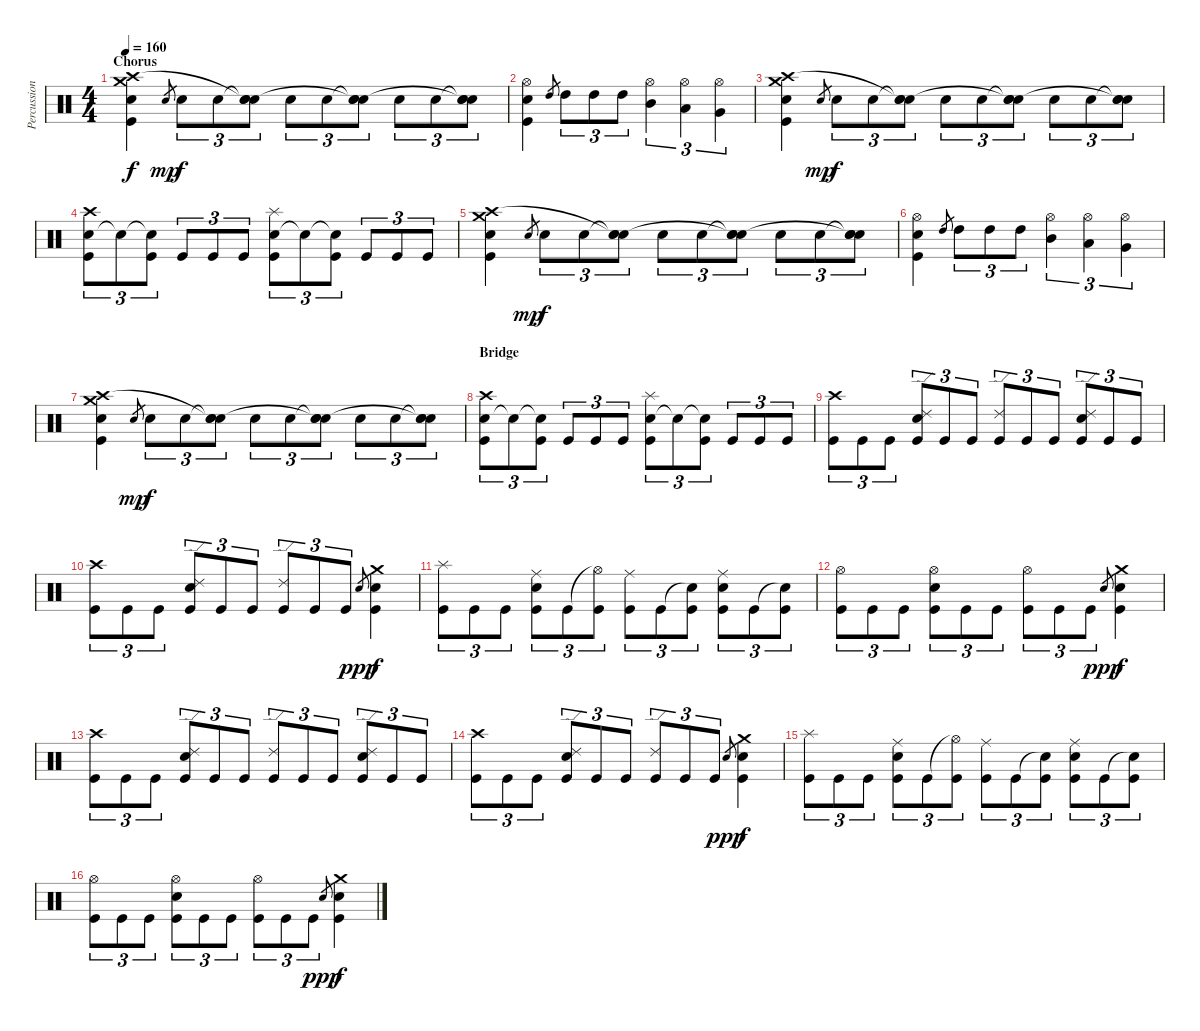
\track ("Percussion" "Percussion") {instrument percussion}
\staff {score}
\articulation defaults
\ts (4 4)
\section ("" "Chorus")
\tempo 160
\clef neutral
\ks c
("Crash medium (hit)" "Crash high (hit)" "Snare (hit) 2" "Kick (hit)").4{dy f} "Snare (hit) 2".8{gr dy mp} "Snare (hit) 2".8{tu (3 2) dy f} "Snare (hit) 2".8{tu (3 2)} ("Snare (hit)"{t} "Snare (hit)"{t} "Snare (hit) 2").8{tu (3 2)} "Snare (hit) 2".8{tu (3 2)} "Snare (hit) 2".8{tu (3 2)} ("Snare (hit)"{t} "Snare (hit)"{t} "Snare (hit) 2").8{tu (3 2)} "Snare (hit) 2".8{tu (3 2)} "Snare (hit) 2".8{tu (3 2)} ("Snare (hit)"{t} "Snare (hit)"{t} "Snare (hit) 2").8{tu (3 2)} |
("Hi-Hat (open)" "Snare (hit) 2" "Kick (hit)").4 "High Tom (hit)".8{gr} "High Tom (hit)".8{tu (3 2)} "High Tom (hit)".8{tu (3 2)} "High Tom (hit)".8{tu (3 2)} ("Hi-Hat (open)" "Mid Tom (hit)").4{tu (3 2)} ("Hi-Hat (open)" "Low Tom (hit)").4{tu (3 2)} ("Hi-Hat (open)" "Very Low Tom (hit)").4{tu (3 2)} |
("Crash medium (hit)" "Crash high (hit)" "Snare (hit) 2" "Kick (hit)").4 "Snare (hit) 2".8{gr dy mp} "Snare (hit) 2".8{tu (3 2) dy f} "Snare (hit) 2".8{tu (3 2)} ("Snare (hit)"{t} "Snare (hit)"{t} "Snare (hit) 2").8{tu (3 2)} "Snare (hit) 2".8{tu (3 2)} "Snare (hit) 2".8{tu (3 2)} ("Snare (hit)"{t} "Snare (hit)"{t} "Snare (hit) 2").8{tu (3 2)} "Snare (hit) 2".8{tu (3 2)} "Snare (hit) 2".8{tu (3 2)} ("Snare (hit)"{t} "Snare (hit)"{t} "Snare (hit) 2").8{tu (3 2)} |
("Snare (hit) 2" "Crash high (hit)" "Kick (hit)").8{tu (3 2)} "Snare (hit)"{t}.8{tu (3 2)} ("Snare (hit)"{t} "Kick (hit)").8{tu (3 2)} "Kick (hit)".8{tu (3 2)} "Kick (hit)".8{tu (3 2)} "Kick (hit)".8{tu (3 2)} ("Snare (hit) 2" "Splash (hit)" "Kick (hit)").8{tu (3 2)} "Snare (hit)"{t}.8{tu (3 2)} ("Snare (hit)"{t} "Kick (hit)").8{tu (3 2)} "Kick (hit)".8{tu (3 2)} "Kick (hit)".8{tu (3 2)} "Kick (hit)".8{tu (3 2)} |
("Crash medium (hit)" "Crash high (hit)" "Snare (hit) 2" "Kick (hit)").4 "Snare (hit) 2".8{gr dy mp} "Snare (hit) 2".8{tu (3 2) dy f} "Snare (hit) 2".8{tu (3 2)} ("Snare (hit)"{t} "Snare (hit)"{t} "Snare (hit) 2").8{tu (3 2)} "Snare (hit) 2".8{tu (3 2)} "Snare (hit) 2".8{tu (3 2)} ("Snare (hit)"{t} "Snare (hit)"{t} "Snare (hit) 2").8{tu (3 2)} "Snare (hit) 2".8{tu (3 2)} "Snare (hit) 2".8{tu (3 2)} ("Snare (hit)"{t} "Snare (hit)"{t} "Snare (hit) 2").8{tu (3 2)} |
("Hi-Hat (open)" "Snare (hit) 2" "Kick (hit)").4 "High Tom (hit)".8{gr} "High Tom (hit)".8{tu (3 2)} "High Tom (hit)".8{tu (3 2)} "High Tom (hit)".8{tu (3 2)} ("Hi-Hat (open)" "Mid Tom (hit)").4{tu (3 2)} ("Hi-Hat (open)" "Low Tom (hit)").4{tu (3 2)} ("Hi-Hat (open)" "Very Low Tom (hit)").4{tu (3 2)} |
("Crash medium (hit)" "Crash high (hit)" "Snare (hit) 2" "Kick (hit)").4 "Snare (hit) 2".8{gr dy mp} "Snare (hit) 2".8{tu (3 2) dy f} "Snare (hit) 2".8{tu (3 2)} ("Snare (hit)"{t} "Snare (hit)"{t} "Snare (hit) 2").8{tu (3 2)} "Snare (hit) 2".8{tu (3 2)} "Snare (hit) 2".8{tu (3 2)} ("Snare (hit)"{t} "Snare (hit)"{t} "Snare (hit) 2").8{tu (3 2)} "Snare (hit) 2".8{tu (3 2)} "Snare (hit) 2".8{tu (3 2)} ("Snare (hit)"{t} "Snare (hit)"{t} "Snare (hit) 2").8{tu (3 2)} |
\section ("" "Bridge")
("Snare (hit) 2" "Crash high (hit)" "Kick (hit)").8{tu (3 2)} "Snare (hit)"{t}.8{tu (3 2)} ("Snare (hit)"{t} "Kick (hit)").8{tu (3 2)} "Kick (hit)".8{tu (3 2)} "Kick (hit)".8{tu (3 2)} "Kick (hit)".8{tu (3 2)} ("Snare (hit) 2" "Splash (hit)" "Kick (hit)").8{tu (3 2)} "Snare (hit)"{t}.8{tu (3 2)} ("Snare (hit)"{t} "Kick (hit)").8{tu (3 2)} "Kick (hit)".8{tu (3 2)} "Kick (hit)".8{tu (3 2)} "Kick (hit)".8{tu (3 2)} |
("Crash high (hit)" "Kick (hit)").8{tu (3 2)} "Kick (hit)".8{tu (3 2)} "Kick (hit)".8{tu (3 2)} ("Snare (hit) 2" "Ride (edge) 2" "Kick (hit)").8{tu (3 2)} "Kick (hit)".8{tu (3 2)} "Kick (hit)".8{tu (3 2)} ("Ride (edge) 2" "Kick (hit)").8{tu (3 2)} "Kick (hit)".8{tu (3 2)} "Kick (hit)".8{tu (3 2)} ("Snare (hit) 2" "Ride (edge) 2" "Kick (hit)").8{tu (3 2)} "Kick (hit)".8{tu (3 2)} "Kick (hit)".8{tu (3 2)} |
("Crash high (hit)" "Kick (hit)").8{tu (3 2)} "Kick (hit)".8{tu (3 2)} "Kick (hit)".8{tu (3 2)} ("Snare (hit) 2" "Ride (edge) 2" "Kick (hit)").8{tu (3 2)} "Kick (hit)".8{tu (3 2)} "Kick (hit)".8{tu (3 2)} ("Ride (edge) 2" "Kick (hit)").8{tu (3 2)} "Kick (hit)".8{tu (3 2)} "Kick (hit)".8{tu (3 2)} "Snare (hit) 2".8{gr dy ppp} ("Snare (hit) 2" "Crash medium (hit)" "Kick (hit)").4{dy f} |
("Splash (hit)" "Kick (hit)").8{tu (3 2)} "Kick (hit)".8{tu (3 2)} "Kick (hit)".8{tu (3 2)} ("Snare (hit) 2" "Ride (middle)" "Kick (hit)").8{tu (3 2)} "Kick (hit)".8{tu (3 2)} ("Hi-Hat (open)"{t} "Kick (hit)").8{tu (3 2)} ("Ride (middle)" "Kick (hit)").8{tu (3 2)} "Kick (hit)".8{tu (3 2)} ("Snare (hit)"{t} "Kick (hit)").8{tu (3 2)} ("Snare (hit) 2" "Ride (middle)" "Kick (hit)").8{tu (3 2)} "Kick (hit)".8{tu (3 2)} ("Snare (hit)"{t} "Kick (hit)").8{tu (3 2)} |
("Hi-Hat (open)" "Kick (hit)").8{tu (3 2)} "Kick (hit)".8{tu (3 2)} "Kick (hit)".8{tu (3 2)} ("Snare (hit) 2" "Hi-Hat (open)" "Kick (hit)").8{tu (3 2)} "Kick (hit)".8{tu (3 2)} "Kick (hit)".8{tu (3 2)} ("Hi-Hat (open)" "Kick (hit)").8{tu (3 2)} "Kick (hit)".8{tu (3 2)} "Kick (hit)".8{tu (3 2)} "Snare (hit) 2".8{gr dy ppp} ("Snare (hit) 2" "Crash medium (hit)" "Kick (hit)").4{dy f} |
("Crash high (hit)" "Kick (hit)").8{tu (3 2)} "Kick (hit)".8{tu (3 2)} "Kick (hit)".8{tu (3 2)} ("Snare (hit) 2" "Ride (edge) 2" "Kick (hit)").8{tu (3 2)} "Kick (hit)".8{tu (3 2)} "Kick (hit)".8{tu (3 2)} ("Ride (edge) 2" "Kick (hit)").8{tu (3 2)} "Kick (hit)".8{tu (3 2)} "Kick (hit)".8{tu (3 2)} ("Snare (hit) 2" "Ride (edge) 2" "Kick (hit)").8{tu (3 2)} "Kick (hit)".8{tu (3 2)} "Kick (hit)".8{tu (3 2)} |
("Crash high (hit)" "Kick (hit)").8{tu (3 2)} "Kick (hit)".8{tu (3 2)} "Kick (hit)".8{tu (3 2)} ("Snare (hit) 2" "Ride (edge) 2" "Kick (hit)").8{tu (3 2)} "Kick (hit)".8{tu (3 2)} "Kick (hit)".8{tu (3 2)} ("Ride (edge) 2" "Kick (hit)").8{tu (3 2)} "Kick (hit)".8{tu (3 2)} "Kick (hit)".8{tu (3 2)} "Snare (hit) 2".8{gr dy ppp} ("Snare (hit) 2" "Crash medium (hit)" "Kick (hit)").4{dy f} |
("Splash (hit)" "Kick (hit)").8{tu (3 2)} "Kick (hit)".8{tu (3 2)} "Kick (hit)".8{tu (3 2)} ("Snare (hit) 2" "Ride (middle)" "Kick (hit)").8{tu (3 2)} "Kick (hit)".8{tu (3 2)} ("Hi-Hat (open)"{t} "Kick (hit)").8{tu (3 2)} ("Ride (middle)" "Kick (hit)").8{tu (3 2)} "Kick (hit)".8{tu (3 2)} ("Snare (hit)"{t} "Kick (hit)").8{tu (3 2)} ("Snare (hit) 2" "Ride (middle)" "Kick (hit)").8{tu (3 2)} "Kick (hit)".8{tu (3 2)} ("Snare (hit)"{t} "Kick (hit)").8{tu (3 2)} |
("Hi-Hat (open)" "Kick (hit)").8{tu (3 2)} "Kick (hit)".8{tu (3 2)} "Kick (hit)".8{tu (3 2)} ("Snare (hit) 2" "Hi-Hat (open)" "Kick (hit)").8{tu (3 2)} "Kick (hit)".8{tu (3 2)} "Kick (hit)".8{tu (3 2)} ("Hi-Hat (open)" "Kick (hit)").8{tu (3 2)} "Kick (hit)".8{tu (3 2)} "Kick (hit)".8{tu (3 2)} "Snare (hit) 2".8{gr dy ppp} ("Snare (hit) 2" "Crash medium (hit)" "Kick (hit)").4{dy f}
